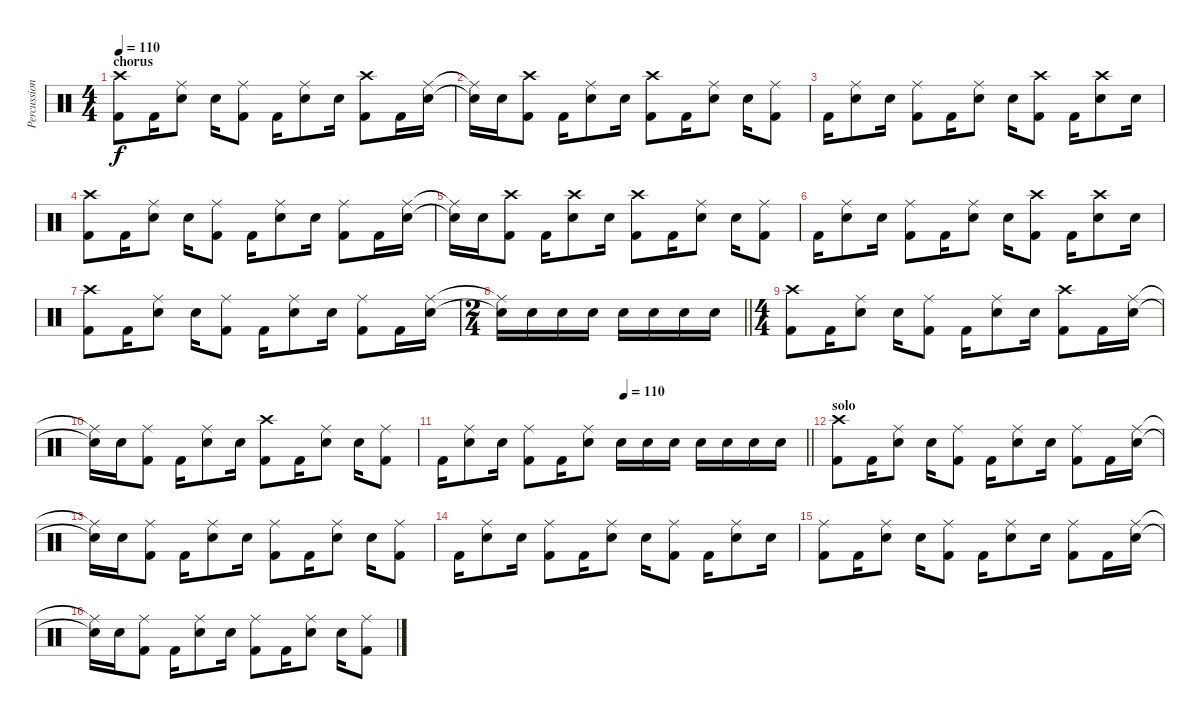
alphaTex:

\track ("Percussion" "Percussion") {instrument percussion}
\staff {score}
\articulation defaults
\ts (4 4)
\section ("" "chorus")
\tempo 110
\clef neutral
\ks c
("Kick (hit) 2" "Crash high (hit)").8{dy f} "Kick (hit) 2".16 ("Electric Snare (hit)" "Ride (middle)").8 "Electric Snare (hit)".16 ("Kick (hit) 2" "Ride (middle)").8 "Kick (hit) 2".16 ("Electric Snare (hit)" "Ride (middle)").8 "Electric Snare (hit)".16 ("Kick (hit) 2" "Crash high (hit)").8 "Kick (hit) 2".16 ("Electric Snare (hit)" "Ride (middle)").16 |
("Electric Snare (hit)"{t} "Ride (middle)"{t}).16 "Electric Snare (hit)".16 ("Kick (hit) 2" "Crash high (hit)").8 "Kick (hit) 2".16 ("Electric Snare (hit)" "Ride (middle)").8 "Electric Snare (hit)".16 ("Kick (hit) 2" "Crash high (hit)").8 "Kick (hit) 2".16 ("Electric Snare (hit)" "Ride (middle)").8 "Electric Snare (hit)".16 ("Kick (hit) 2" "Ride (middle)").8 |
"Kick (hit) 2".16 ("Electric Snare (hit)" "Ride (middle)").8 "Electric Snare (hit)".16 ("Kick (hit) 2" "Ride (middle)").8 "Kick (hit) 2".16 ("Electric Snare (hit)" "Ride (middle)").8 "Electric Snare (hit)".16 ("Kick (hit) 2" "Crash high (hit)").8 "Kick (hit) 2".16 ("Electric Snare (hit)" "Crash high (hit)").8 "Electric Snare (hit)".16 |
("Kick (hit) 2" "Crash high (hit)").8 "Kick (hit) 2".16 ("Electric Snare (hit)" "Ride (middle)").8 "Electric Snare (hit)".16 ("Kick (hit) 2" "Ride (middle)").8 "Kick (hit) 2".16 ("Electric Snare (hit)" "Ride (middle)").8 "Electric Snare (hit)".16 ("Kick (hit) 2" "Ride (middle)").8 "Kick (hit) 2".16 ("Electric Snare (hit)" "Ride (middle)").16 |
("Electric Snare (hit)"{t} "Ride (middle)"{t}).16 "Electric Snare (hit)".16 ("Kick (hit) 2" "Crash high (hit)").8 "Kick (hit) 2".16 ("Electric Snare (hit)" "Crash high (hit)").8 "Electric Snare (hit)".16 ("Kick (hit) 2" "Crash high (hit)").8 "Kick (hit) 2".16 ("Electric Snare (hit)" "Ride (middle)").8 "Electric Snare (hit)".16 ("Kick (hit) 2" "Ride (middle)").8 |
"Kick (hit) 2".16 ("Electric Snare (hit)" "Ride (middle)").8 "Electric Snare (hit)".16 ("Kick (hit) 2" "Ride (middle)").8 "Kick (hit) 2".16 ("Electric Snare (hit)" "Ride (middle)").8 "Electric Snare (hit)".16 ("Kick (hit) 2" "Crash high (hit)").8 "Kick (hit) 2".16 ("Electric Snare (hit)" "Crash high (hit)").8 "Electric Snare (hit)".16 |
("Kick (hit) 2" "Crash high (hit)").8 "Kick (hit) 2".16 ("Electric Snare (hit)" "Ride (middle)").8 "Electric Snare (hit)".16 ("Kick (hit) 2" "Ride (middle)").8 "Kick (hit) 2".16 ("Electric Snare (hit)" "Ride (middle)").8 "Electric Snare (hit)".16 ("Kick (hit) 2" "Ride (middle)").8 "Kick (hit) 2".16 ("Electric Snare (hit)" "Ride (middle)").16 |
\ts (2 4)
\barLineRight lightlight
("Electric Snare (hit)"{t} "Ride (middle)"{t}).16 "Electric Snare (hit)".16 "Electric Snare (hit)".16 "Electric Snare (hit)".16 "Electric Snare (hit)".16 "Electric Snare (hit)".16 "Electric Snare (hit)".16 "Electric Snare (hit)".16 |
\ts (4 4)
("Kick (hit) 2" "Crash high (hit)").8 "Kick (hit) 2".16 ("Electric Snare (hit)" "Ride (middle)").8 "Electric Snare (hit)".16 ("Kick (hit) 2" "Ride (middle)").8 "Kick (hit) 2".16 ("Electric Snare (hit)" "Ride (middle)").8 "Electric Snare (hit)".16 ("Kick (hit) 2" "Crash high (hit)").8 "Kick (hit) 2".16 ("Electric Snare (hit)" "Ride (middle)").16 |
("Electric Snare (hit)"{t} "Ride (middle)"{t}).16 "Electric Snare (hit)".16 ("Kick (hit) 2" "Ride (middle)").8 "Kick (hit) 2".16 ("Electric Snare (hit)" "Ride (middle)").8 "Electric Snare (hit)".16 ("Kick (hit) 2" "Crash high (hit)").8 "Kick (hit) 2".16 ("Electric Snare (hit)" "Ride (middle)").8 "Electric Snare (hit)".16 ("Kick (hit) 2" "Ride (middle)").8 |
\tempo (110 0.5)
\barLineRight lightlight "Kick (hit) 2".16
("Electric Snare (hit)" "Ride (middle)").8 "Electric Snare (hit)".16 ("Kick (hit) 2" "Ride (middle)").8 "Kick (hit) 2".16 ("Electric Snare (hit)" "Ride (middle)").8 "Electric Snare (hit)".16 "Electric Snare (hit)".16 "Electric Snare (hit)".16 "Electric Snare (hit)".16 "Electric Snare (hit)".16 "Electric Snare (hit)".16 "Electric Snare (hit)".16 |
\section ("" "solo")
("Kick (hit) 2" "Crash high (hit)").8 "Kick (hit) 2".16 ("Electric Snare (hit)" "Ride (middle)").8 "Electric Snare (hit)".16 ("Kick (hit) 2" "Ride (middle)").8 "Kick (hit) 2".16 ("Electric Snare (hit)" "Ride (middle)").8 "Electric Snare (hit)".16 ("Kick (hit) 2" "Ride (middle)").8 "Kick (hit) 2".16 ("Electric Snare (hit)" "Ride (middle)").16 |
("Electric Snare (hit)"{t} "Ride (middle)"{t}).16 "Electric Snare (hit)".16 ("Kick (hit) 2" "Ride (middle)").8 "Kick (hit) 2".16 ("Electric Snare (hit)" "Ride (middle)").8 "Electric Snare (hit)".16 ("Kick (hit) 2" "Ride (middle)").8 "Kick (hit) 2".16 ("Electric Snare (hit)" "Ride (middle)").8 "Electric Snare (hit)".16 ("Kick (hit) 2" "Ride (middle)").8 |
"Kick (hit) 2".16 ("Electric Snare (hit)" "Ride (middle)").8 "Electric Snare (hit)".16 ("Kick (hit) 2" "Ride (middle)").8 "Kick (hit) 2".16 ("Electric Snare (hit)" "Ride (middle)").8 "Electric Snare (hit)".16 ("Kick (hit) 2" "Ride (middle)").8 "Kick (hit) 2".16 ("Electric Snare (hit)" "Ride (middle)").8 "Electric Snare (hit)".16 |
("Kick (hit) 2" "Ride (middle)").8 "Kick (hit) 2".16 ("Electric Snare (hit)" "Ride (middle)").8 "Electric Snare (hit)".16 ("Kick (hit) 2" "Ride (middle)").8 "Kick (hit) 2".16 ("Electric Snare (hit)" "Ride (middle)").8 "Electric Snare (hit)".16 ("Kick (hit) 2" "Ride (middle)").8 "Kick (hit) 2".16 ("Electric Snare (hit)" "Ride (middle)").16 |
("Electric Snare (hit)"{t} "Ride (middle)"{t}).16 "Electric Snare (hit)".16 ("Kick (hit) 2" "Ride (middle)").8 "Kick (hit) 2".16 ("Electric Snare (hit)" "Ride (middle)").8 "Electric Snare (hit)".16 ("Kick (hit) 2" "Ride (middle)").8 "Kick (hit) 2".16 ("Electric Snare (hit)" "Ride (middle)").8 "Electric Snare (hit)".16 ("Kick (hit) 2" "Ride (middle)").8
